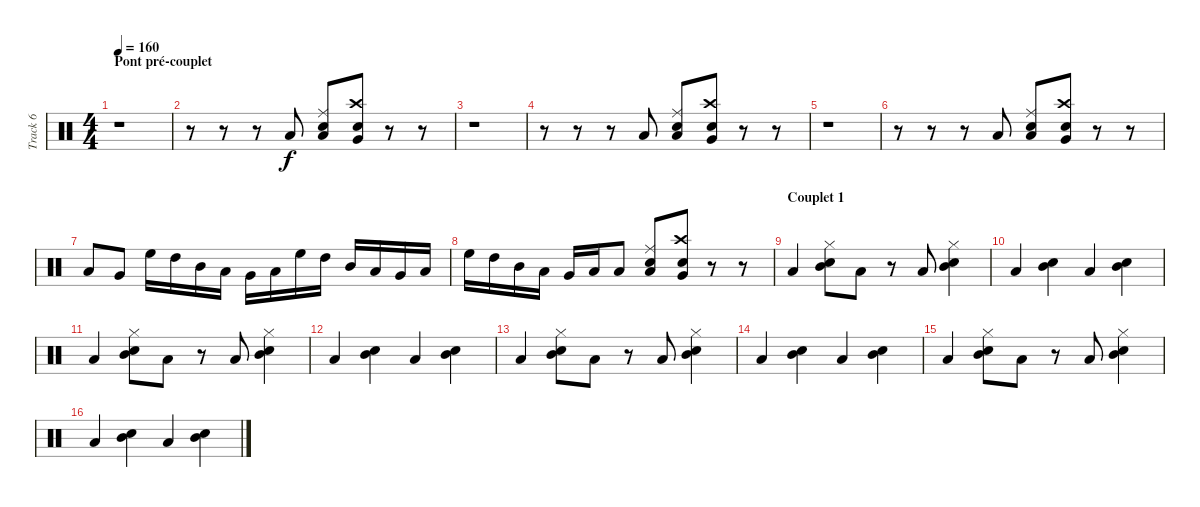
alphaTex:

\track ("Track 6" "Track 6") {instrument percussion}
\staff {score}
\articulation defaults
\ts (4 4)
\section ("" "Pont pré-couplet")
\tempo 160
\clef neutral
\ks c
r.1{dy f} |
r.8 r.8 r.8 "Low Floor Tom (hit)".8 ("Low Tom (hit)" "Ride (middle)" "Electric Snare (hit)").8 ("Very Low Tom (hit)" "Crash high (hit)" "Snare (hit) 2").8 r.8 r.8 |
r.1 |
r.8 r.8 r.8 "Low Floor Tom (hit)".8 ("Low Tom (hit)" "Ride (middle)" "Electric Snare (hit)").8 ("Very Low Tom (hit)" "Crash high (hit)" "Snare (hit) 2").8 r.8 r.8 |
r.1 |
r.8 r.8 r.8 "Low Floor Tom (hit)".8 ("Low Tom (hit)" "Ride (middle)" "Electric Snare (hit)").8 ("Very Low Tom (hit)" "Crash high (hit)" "Snare (hit) 2").8 r.8 r.8 |
"Low Tom (hit)".8 "Very Low Tom (hit)".8 "High Floor Tom (hit)".16 "High Tom (hit)".16 "Mid Tom (hit)".16 "Low Tom (hit)".16 "Very Low Tom (hit)".16 "Low Floor Tom (hit)".16 "High Floor Tom (hit)".16 "High Tom (hit)".16 "Mid Tom (hit)".16 "Low Tom (hit)".16 "Very Low Tom (hit)".16 "Low Floor Tom (hit)".16 |
"High Floor Tom (hit)".16 "High Tom (hit)".16 "Mid Tom (hit)".16 "Low Tom (hit)".16 "Very Low Tom (hit)".16 "Low Floor Tom (hit)".16 "Low Floor Tom (hit)".8 ("Low Tom (hit)" "Ride (middle)" "Electric Snare (hit)").8 ("Very Low Tom (hit)" "Crash high (hit)" "Snare (hit) 2").8 r.8 r.8 |
\section ("" "Couplet 1")
"Low Tom (hit)".4 ("Mid Tom (hit)" "Hi-Hat (closed)" "Snare (hit) 2").8 "Low Tom (hit)".8 r.8 "Low Tom (hit)".8 ("Mid Tom (hit)" "Hi-Hat (closed)" "Snare (hit) 2").4 |
"Low Tom (hit)".4 ("Mid Tom (hit)" "Snare (hit) 2").4 "Low Tom (hit)".4 ("Mid Tom (hit)" "Snare (hit) 2").4 |
"Low Tom (hit)".4 ("Mid Tom (hit)" "Hi-Hat (closed)" "Snare (hit) 2").8 "Low Tom (hit)".8 r.8 "Low Tom (hit)".8 ("Mid Tom (hit)" "Hi-Hat (closed)" "Snare (hit) 2").4 |
"Low Tom (hit)".4 ("Mid Tom (hit)" "Snare (hit) 2").4 "Low Tom (hit)".4 ("Mid Tom (hit)" "Snare (hit) 2").4 |
"Low Tom (hit)".4 ("Mid Tom (hit)" "Hi-Hat (closed)" "Snare (hit) 2").8 "Low Tom (hit)".8 r.8 "Low Tom (hit)".8 ("Mid Tom (hit)" "Hi-Hat (closed)" "Snare (hit) 2").4 |
"Low Tom (hit)".4 ("Mid Tom (hit)" "Snare (hit) 2").4 "Low Tom (hit)".4 ("Mid Tom (hit)" "Snare (hit) 2").4 |
"Low Tom (hit)".4 ("Mid Tom (hit)" "Hi-Hat (closed)" "Snare (hit) 2").8 "Low Tom (hit)".8 r.8 "Low Tom (hit)".8 ("Mid Tom (hit)" "Hi-Hat (closed)" "Snare (hit) 2").4 |
"Low Tom (hit)".4 ("Mid Tom (hit)" "Snare (hit) 2").4 "Low Tom (hit)".4 ("Mid Tom (hit)" "Snare (hit) 2").4
